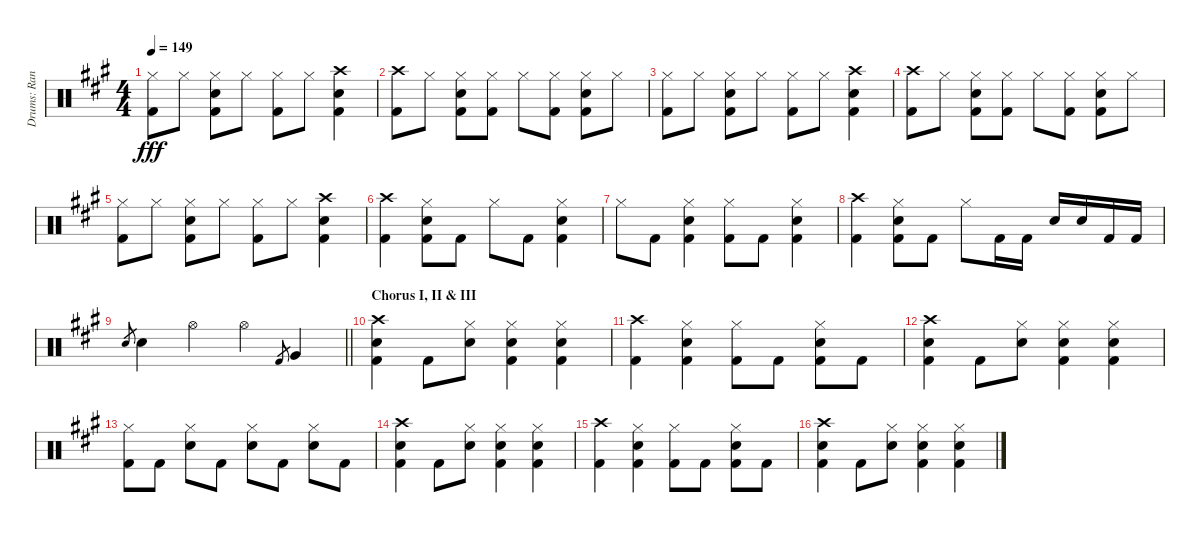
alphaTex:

\track ("Drums: Randy" "Drums: Ran") {instrument percussion}
\staff {score}
\articulation defaults
\ts (4 4)
\tempo 149
\clef neutral
\ks a
("Hi-Hat (closed)" "Kick (hit) 2").8{dy fff} "Hi-Hat (closed)".8 ("Hi-Hat (closed)" "Snare (hit) 2" "Kick (hit) 2").8 "Hi-Hat (closed)".8 ("Hi-Hat (closed)" "Kick (hit) 2").8 "Hi-Hat (closed)".8 ("Crash high (hit)" "Snare (hit) 2" "Kick (hit) 2").4 |
("Crash high (hit)" "Kick (hit) 2").8 "Hi-Hat (closed)".8 ("Hi-Hat (closed)" "Snare (hit) 2" "Kick (hit) 2").8 ("Hi-Hat (closed)" "Kick (hit) 2").8 "Hi-Hat (closed)".8 ("Hi-Hat (closed)" "Kick (hit) 2").8 ("Hi-Hat (closed)" "Snare (hit) 2" "Kick (hit) 2").8 "Hi-Hat (closed)".8 |
("Hi-Hat (closed)" "Kick (hit) 2").8 "Hi-Hat (closed)".8 ("Hi-Hat (closed)" "Snare (hit) 2" "Kick (hit) 2").8 "Hi-Hat (closed)".8 ("Hi-Hat (closed)" "Kick (hit) 2").8 "Hi-Hat (closed)".8 ("Crash high (hit)" "Snare (hit) 2" "Kick (hit) 2").4 |
("Crash high (hit)" "Kick (hit) 2").8 "Hi-Hat (closed)".8 ("Hi-Hat (closed)" "Snare (hit) 2" "Kick (hit) 2").8 ("Hi-Hat (closed)" "Kick (hit) 2").8 "Hi-Hat (closed)".8 ("Hi-Hat (closed)" "Kick (hit) 2").8 ("Hi-Hat (closed)" "Snare (hit) 2" "Kick (hit) 2").8 "Hi-Hat (closed)".8 |
("Hi-Hat (closed)" "Kick (hit) 2").8 "Hi-Hat (closed)".8 ("Hi-Hat (closed)" "Snare (hit) 2" "Kick (hit) 2").8 "Hi-Hat (closed)".8 ("Hi-Hat (closed)" "Kick (hit) 2").8 "Hi-Hat (closed)".8 ("Crash high (hit)" "Snare (hit) 2" "Kick (hit) 2").4 |
("Crash high (hit)" "Kick (hit) 2").4 ("Hi-Hat (closed)" "Snare (hit) 2" "Kick (hit) 2").8 "Kick (hit) 2".8 "Hi-Hat (closed)".8 "Kick (hit) 2".8 ("Hi-Hat (closed)" "Snare (hit) 2" "Kick (hit) 2").4 |
"Hi-Hat (closed)".8 "Kick (hit) 2".8 ("Hi-Hat (closed)" "Snare (hit) 2" "Kick (hit) 2").4 ("Hi-Hat (closed)" "Kick (hit) 2").8 "Kick (hit) 2".8 ("Hi-Hat (closed)" "Snare (hit) 2" "Kick (hit) 2").4 |
("Crash high (hit)" "Kick (hit) 2").4 ("Hi-Hat (closed)" "Snare (hit) 2" "Kick (hit) 2").8 "Kick (hit) 2".8 "Hi-Hat (closed)".8 "Kick (hit) 2".16 "Kick (hit) 2".16 "Snare (hit) 2".16 "Snare (hit) 2".16 "Kick (hit) 2".16 "Kick (hit) 2".16 |
\barLineRight lightlight "Snare (hit) 2".8{gr} "Snare (hit) 2".4 "Hi-Hat (open)".4 "Hi-Hat (open)".4 "Kick (hit) 2".8{gr} "Very Low Tom (hit)".4
|
\section ("" "Chorus I, II & III")
("Crash high (hit)" "Snare (hit) 2" "Kick (hit) 2").4 "Kick (hit) 2".8 ("Hi-Hat (closed)" "Snare (hit) 2").8 ("Hi-Hat (closed)" "Snare (hit) 2" "Kick (hit) 2").4 ("Hi-Hat (closed)" "Snare (hit) 2" "Kick (hit) 2").4 |
("Crash high (hit)" "Kick (hit) 2").4 ("Hi-Hat (closed)" "Snare (hit) 2" "Kick (hit) 2").4 ("Hi-Hat (closed)" "Kick (hit) 2").8 "Kick (hit) 2".8 ("Hi-Hat (closed)" "Snare (hit) 2" "Kick (hit) 2").8 "Kick (hit) 2".8 |
("Crash high (hit)" "Snare (hit) 2" "Kick (hit) 2").4 "Kick (hit) 2".8 ("Hi-Hat (closed)" "Snare (hit) 2").8 ("Hi-Hat (closed)" "Snare (hit) 2" "Kick (hit) 2").4 ("Hi-Hat (closed)" "Snare (hit) 2" "Kick (hit) 2").4 |
("Hi-Hat (closed)" "Kick (hit) 2").8 "Kick (hit) 2".8 ("Hi-Hat (closed)" "Snare (hit) 2").8 "Kick (hit) 2".8 ("Hi-Hat (closed)" "Snare (hit) 2").8 "Kick (hit) 2".8 ("Hi-Hat (closed)" "Snare (hit) 2").8 "Kick (hit) 2".8 |
("Crash high (hit)" "Snare (hit) 2" "Kick (hit) 2").4 "Kick (hit) 2".8 ("Hi-Hat (closed)" "Snare (hit) 2").8 ("Hi-Hat (closed)" "Snare (hit) 2" "Kick (hit) 2").4 ("Hi-Hat (closed)" "Snare (hit) 2" "Kick (hit) 2").4 |
("Crash high (hit)" "Kick (hit) 2").4 ("Hi-Hat (closed)" "Snare (hit) 2" "Kick (hit) 2").4 ("Hi-Hat (closed)" "Kick (hit) 2").8 "Kick (hit) 2".8 ("Hi-Hat (closed)" "Snare (hit) 2" "Kick (hit) 2").8 "Kick (hit) 2".8 |
("Crash high (hit)" "Snare (hit) 2" "Kick (hit) 2").4 "Kick (hit) 2".8 ("Hi-Hat (closed)" "Snare (hit) 2").8 ("Hi-Hat (closed)" "Snare (hit) 2" "Kick (hit) 2").4 ("Hi-Hat (closed)" "Snare (hit) 2" "Kick (hit) 2").4
